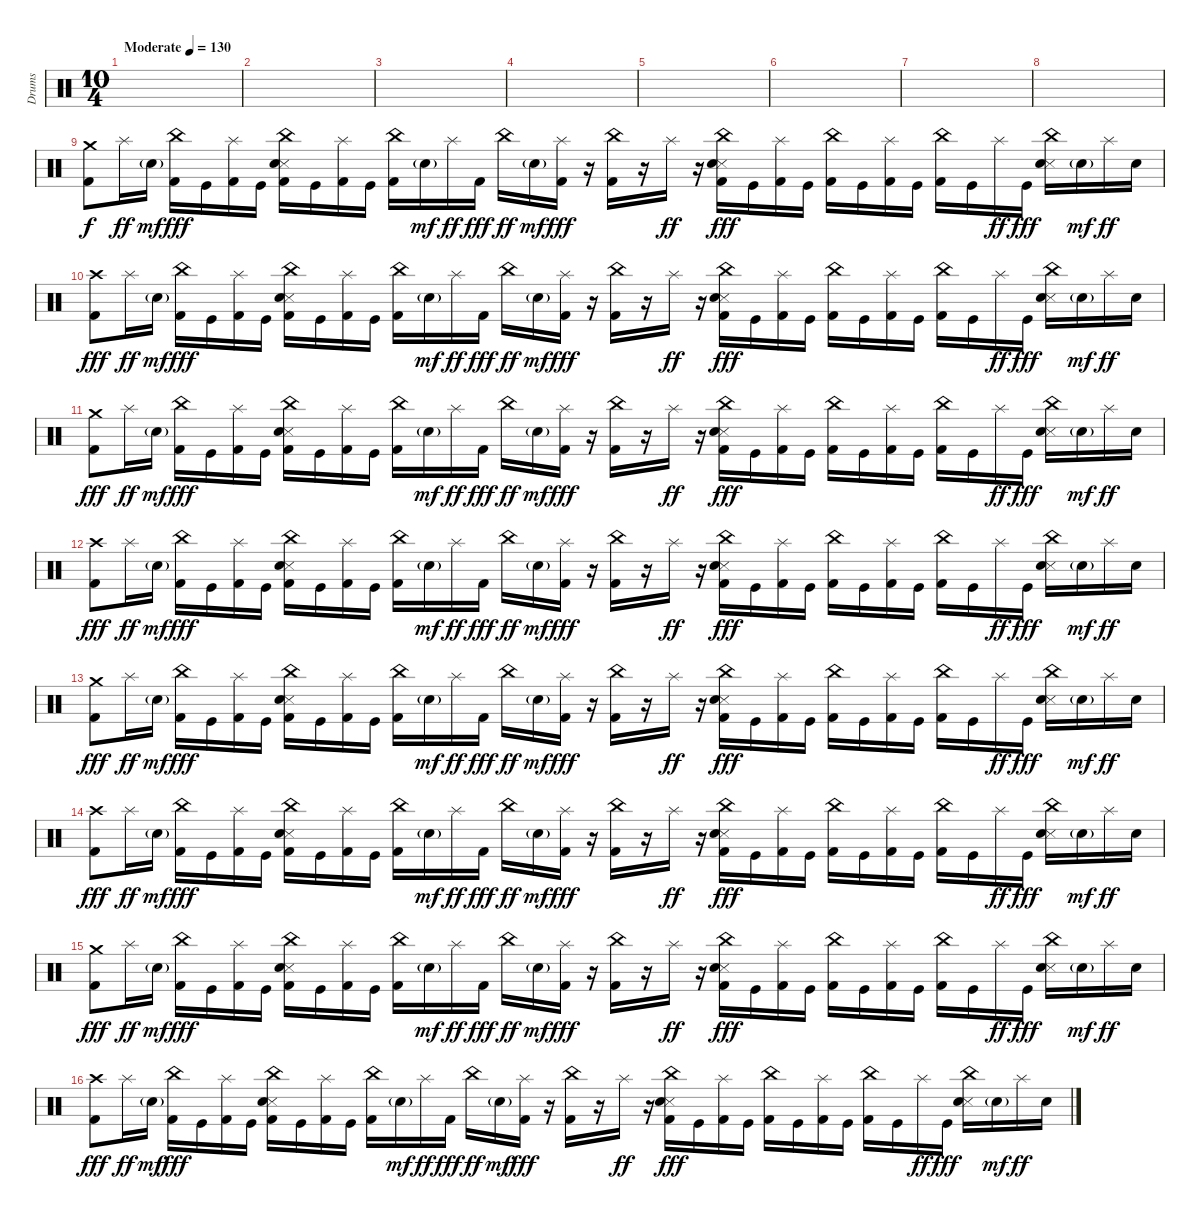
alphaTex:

\track ("Drums" "Drums") {instrument percussion}
\staff {score}
\articulation defaults
\ts (10 4)
\tempo (130 "Moderate")
\clef neutral
\ks c
|
|
|
|
|
|
|
|
("Crash medium (hit)" "Kick (hit) 2").8 "Splash (hit)".16{dy ff} "Snare (hit) 2"{g}.16{dy mf} ("China (hit)" "Kick (hit) 2").16{dy fff} "Kick (hit)".16 ("Splash (hit)" "Kick (hit) 2").16 "Kick (hit)".16 ("China (hit)" "Snare (side stick) 3" "Snare (hit) 2" "Kick (hit) 2").16 "Kick (hit)".16 ("Splash (hit)" "Kick (hit) 2").16 "Kick (hit)".16 ("China (hit)" "Kick (hit) 2").16 "Snare (hit) 2"{g}.16{dy mf} "Splash (hit)".16{dy ff} "Kick (hit) 2".16{dy fff} "China (hit)".16{dy ff} "Snare (hit) 2"{g}.16{dy mf} ("Splash (hit)" "Kick (hit) 2").16{dy fff} r.16 ("China (hit)" "Kick (hit) 2").16 r.16 "Splash (hit)".16{dy ff} r.16 ("China (hit)" "Snare (side stick) 3" "Snare (hit) 2" "Kick (hit) 2").16{dy fff} "Kick (hit)".16 ("Splash (hit)" "Kick (hit) 2").16 "Kick (hit)".16 ("China (hit)" "Kick (hit) 2").16 "Kick (hit)".16 ("Splash (hit)" "Kick (hit) 2").16 "Kick (hit)".16 ("China (hit)" "Kick (hit) 2").16 "Kick (hit)".16 "Splash (hit)".16{dy ff} "Kick (hit)".16{dy fff} ("China (hit)" "Snare (side stick) 3" "Snare (hit) 2").16 "Snare (hit) 2"{g}.16{dy mf} "Splash (hit)".16{dy ff} "Snare (hit) 2".16 |
("Crash high (hit)" "Kick (hit) 2").8{dy fff} "Splash (hit)".16{dy ff} "Snare (hit) 2"{g}.16{dy mf} ("China (hit)" "Kick (hit) 2").16{dy fff} "Kick (hit)".16 ("Splash (hit)" "Kick (hit) 2").16 "Kick (hit)".16 ("China (hit)" "Snare (side stick) 3" "Snare (hit) 2" "Kick (hit) 2").16 "Kick (hit)".16 ("Splash (hit)" "Kick (hit) 2").16 "Kick (hit)".16 ("China (hit)" "Kick (hit) 2").16 "Snare (hit) 2"{g}.16{dy mf} "Splash (hit)".16{dy ff} "Kick (hit) 2".16{dy fff} "China (hit)".16{dy ff} "Snare (hit) 2"{g}.16{dy mf} ("Splash (hit)" "Kick (hit) 2").16{dy fff} r.16 ("China (hit)" "Kick (hit) 2").16 r.16 "Splash (hit)".16{dy ff} r.16 ("China (hit)" "Snare (side stick) 3" "Snare (hit) 2" "Kick (hit) 2").16{dy fff} "Kick (hit)".16 ("Splash (hit)" "Kick (hit) 2").16 "Kick (hit)".16 ("China (hit)" "Kick (hit) 2").16 "Kick (hit)".16 ("Splash (hit)" "Kick (hit) 2").16 "Kick (hit)".16 ("China (hit)" "Kick (hit) 2").16 "Kick (hit)".16 "Splash (hit)".16{dy ff} "Kick (hit)".16{dy fff} ("China (hit)" "Snare (side stick) 3" "Snare (hit) 2").16 "Snare (hit) 2"{g}.16{dy mf} "Splash (hit)".16{dy ff} "Snare (hit) 2".16 |
("Crash medium (hit)" "Kick (hit) 2").8{dy fff} "Splash (hit)".16{dy ff} "Snare (hit) 2"{g}.16{dy mf} ("China (hit)" "Kick (hit) 2").16{dy fff} "Kick (hit)".16 ("Splash (hit)" "Kick (hit) 2").16 "Kick (hit)".16 ("China (hit)" "Snare (side stick) 3" "Snare (hit) 2" "Kick (hit) 2").16 "Kick (hit)".16 ("Splash (hit)" "Kick (hit) 2").16 "Kick (hit)".16 ("China (hit)" "Kick (hit) 2").16 "Snare (hit) 2"{g}.16{dy mf} "Splash (hit)".16{dy ff} "Kick (hit) 2".16{dy fff} "China (hit)".16{dy ff} "Snare (hit) 2"{g}.16{dy mf} ("Splash (hit)" "Kick (hit) 2").16{dy fff} r.16 ("China (hit)" "Kick (hit) 2").16 r.16 "Splash (hit)".16{dy ff} r.16 ("China (hit)" "Snare (side stick) 3" "Snare (hit) 2" "Kick (hit) 2").16{dy fff} "Kick (hit)".16 ("Splash (hit)" "Kick (hit) 2").16 "Kick (hit)".16 ("China (hit)" "Kick (hit) 2").16 "Kick (hit)".16 ("Splash (hit)" "Kick (hit) 2").16 "Kick (hit)".16 ("China (hit)" "Kick (hit) 2").16 "Kick (hit)".16 "Splash (hit)".16{dy ff} "Kick (hit)".16{dy fff} ("China (hit)" "Snare (side stick) 3" "Snare (hit) 2").16 "Snare (hit) 2"{g}.16{dy mf} "Splash (hit)".16{dy ff} "Snare (hit) 2".16 |
("Crash high (hit)" "Kick (hit) 2").8{dy fff} "Splash (hit)".16{dy ff} "Snare (hit) 2"{g}.16{dy mf} ("China (hit)" "Kick (hit) 2").16{dy fff} "Kick (hit)".16 ("Splash (hit)" "Kick (hit) 2").16 "Kick (hit)".16 ("China (hit)" "Snare (side stick) 3" "Snare (hit) 2" "Kick (hit) 2").16 "Kick (hit)".16 ("Splash (hit)" "Kick (hit) 2").16 "Kick (hit)".16 ("China (hit)" "Kick (hit) 2").16 "Snare (hit) 2"{g}.16{dy mf} "Splash (hit)".16{dy ff} "Kick (hit) 2".16{dy fff} "China (hit)".16{dy ff} "Snare (hit) 2"{g}.16{dy mf} ("Splash (hit)" "Kick (hit) 2").16{dy fff} r.16 ("China (hit)" "Kick (hit) 2").16 r.16 "Splash (hit)".16{dy ff} r.16 ("China (hit)" "Snare (side stick) 3" "Snare (hit) 2" "Kick (hit) 2").16{dy fff} "Kick (hit)".16 ("Splash (hit)" "Kick (hit) 2").16 "Kick (hit)".16 ("China (hit)" "Kick (hit) 2").16 "Kick (hit)".16 ("Splash (hit)" "Kick (hit) 2").16 "Kick (hit)".16 ("China (hit)" "Kick (hit) 2").16 "Kick (hit)".16 "Splash (hit)".16{dy ff} "Kick (hit)".16{dy fff} ("China (hit)" "Snare (side stick) 3" "Snare (hit) 2").16 "Snare (hit) 2"{g}.16{dy mf} "Splash (hit)".16{dy ff} "Snare (hit) 2".16 |
("Crash medium (hit)" "Kick (hit) 2").8{dy fff} "Splash (hit)".16{dy ff} "Snare (hit) 2"{g}.16{dy mf} ("China (hit)" "Kick (hit) 2").16{dy fff} "Kick (hit)".16 ("Splash (hit)" "Kick (hit) 2").16 "Kick (hit)".16 ("China (hit)" "Snare (side stick) 3" "Snare (hit) 2" "Kick (hit) 2").16 "Kick (hit)".16 ("Splash (hit)" "Kick (hit) 2").16 "Kick (hit)".16 ("China (hit)" "Kick (hit) 2").16 "Snare (hit) 2"{g}.16{dy mf} "Splash (hit)".16{dy ff} "Kick (hit) 2".16{dy fff} "China (hit)".16{dy ff} "Snare (hit) 2"{g}.16{dy mf} ("Splash (hit)" "Kick (hit) 2").16{dy fff} r.16 ("China (hit)" "Kick (hit) 2").16 r.16 "Splash (hit)".16{dy ff} r.16 ("China (hit)" "Snare (side stick) 3" "Snare (hit) 2" "Kick (hit) 2").16{dy fff} "Kick (hit)".16 ("Splash (hit)" "Kick (hit) 2").16 "Kick (hit)".16 ("China (hit)" "Kick (hit) 2").16 "Kick (hit)".16 ("Splash (hit)" "Kick (hit) 2").16 "Kick (hit)".16 ("China (hit)" "Kick (hit) 2").16 "Kick (hit)".16 "Splash (hit)".16{dy ff} "Kick (hit)".16{dy fff} ("China (hit)" "Snare (side stick) 3" "Snare (hit) 2").16 "Snare (hit) 2"{g}.16{dy mf} "Splash (hit)".16{dy ff} "Snare (hit) 2".16 |
("Crash high (hit)" "Kick (hit) 2").8{dy fff} "Splash (hit)".16{dy ff} "Snare (hit) 2"{g}.16{dy mf} ("China (hit)" "Kick (hit) 2").16{dy fff} "Kick (hit)".16 ("Splash (hit)" "Kick (hit) 2").16 "Kick (hit)".16 ("China (hit)" "Snare (side stick) 3" "Snare (hit) 2" "Kick (hit) 2").16 "Kick (hit)".16 ("Splash (hit)" "Kick (hit) 2").16 "Kick (hit)".16 ("China (hit)" "Kick (hit) 2").16 "Snare (hit) 2"{g}.16{dy mf} "Splash (hit)".16{dy ff} "Kick (hit) 2".16{dy fff} "China (hit)".16{dy ff} "Snare (hit) 2"{g}.16{dy mf} ("Splash (hit)" "Kick (hit) 2").16{dy fff} r.16 ("China (hit)" "Kick (hit) 2").16 r.16 "Splash (hit)".16{dy ff} r.16 ("China (hit)" "Snare (side stick) 3" "Snare (hit) 2" "Kick (hit) 2").16{dy fff} "Kick (hit)".16 ("Splash (hit)" "Kick (hit) 2").16 "Kick (hit)".16 ("China (hit)" "Kick (hit) 2").16 "Kick (hit)".16 ("Splash (hit)" "Kick (hit) 2").16 "Kick (hit)".16 ("China (hit)" "Kick (hit) 2").16 "Kick (hit)".16 "Splash (hit)".16{dy ff} "Kick (hit)".16{dy fff} ("China (hit)" "Snare (side stick) 3" "Snare (hit) 2").16 "Snare (hit) 2"{g}.16{dy mf} "Splash (hit)".16{dy ff} "Snare (hit) 2".16 |
("Crash medium (hit)" "Kick (hit) 2").8{dy fff} "Splash (hit)".16{dy ff} "Snare (hit) 2"{g}.16{dy mf} ("China (hit)" "Kick (hit) 2").16{dy fff} "Kick (hit)".16 ("Splash (hit)" "Kick (hit) 2").16 "Kick (hit)".16 ("China (hit)" "Snare (side stick) 3" "Snare (hit) 2" "Kick (hit) 2").16 "Kick (hit)".16 ("Splash (hit)" "Kick (hit) 2").16 "Kick (hit)".16 ("China (hit)" "Kick (hit) 2").16 "Snare (hit) 2"{g}.16{dy mf} "Splash (hit)".16{dy ff} "Kick (hit) 2".16{dy fff} "China (hit)".16{dy ff} "Snare (hit) 2"{g}.16{dy mf} ("Splash (hit)" "Kick (hit) 2").16{dy fff} r.16 ("China (hit)" "Kick (hit) 2").16 r.16 "Splash (hit)".16{dy ff} r.16 ("China (hit)" "Snare (side stick) 3" "Snare (hit) 2" "Kick (hit) 2").16{dy fff} "Kick (hit)".16 ("Splash (hit)" "Kick (hit) 2").16 "Kick (hit)".16 ("China (hit)" "Kick (hit) 2").16 "Kick (hit)".16 ("Splash (hit)" "Kick (hit) 2").16 "Kick (hit)".16 ("China (hit)" "Kick (hit) 2").16 "Kick (hit)".16 "Splash (hit)".16{dy ff} "Kick (hit)".16{dy fff} ("China (hit)" "Snare (side stick) 3" "Snare (hit) 2").16 "Snare (hit) 2"{g}.16{dy mf} "Splash (hit)".16{dy ff} "Snare (hit) 2".16 |
("Crash high (hit)" "Kick (hit) 2").8{dy fff} "Splash (hit)".16{dy ff} "Snare (hit) 2"{g}.16{dy mf} ("China (hit)" "Kick (hit) 2").16{dy fff} "Kick (hit)".16 ("Splash (hit)" "Kick (hit) 2").16 "Kick (hit)".16 ("China (hit)" "Snare (side stick) 3" "Snare (hit) 2" "Kick (hit) 2").16 "Kick (hit)".16 ("Splash (hit)" "Kick (hit) 2").16 "Kick (hit)".16 ("China (hit)" "Kick (hit) 2").16 "Snare (hit) 2"{g}.16{dy mf} "Splash (hit)".16{dy ff} "Kick (hit) 2".16{dy fff} "China (hit)".16{dy ff} "Snare (hit) 2"{g}.16{dy mf} ("Splash (hit)" "Kick (hit) 2").16{dy fff} r.16 ("China (hit)" "Kick (hit) 2").16 r.16 "Splash (hit)".16{dy ff} r.16 ("China (hit)" "Snare (side stick) 3" "Snare (hit) 2" "Kick (hit) 2").16{dy fff} "Kick (hit)".16 ("Splash (hit)" "Kick (hit) 2").16 "Kick (hit)".16 ("China (hit)" "Kick (hit) 2").16 "Kick (hit)".16 ("Splash (hit)" "Kick (hit) 2").16 "Kick (hit)".16 ("China (hit)" "Kick (hit) 2").16 "Kick (hit)".16 "Splash (hit)".16{dy ff} "Kick (hit)".16{dy fff} ("China (hit)" "Snare (side stick) 3" "Snare (hit) 2").16 "Snare (hit) 2"{g}.16{dy mf} "Splash (hit)".16{dy ff} "Snare (hit) 2".16
